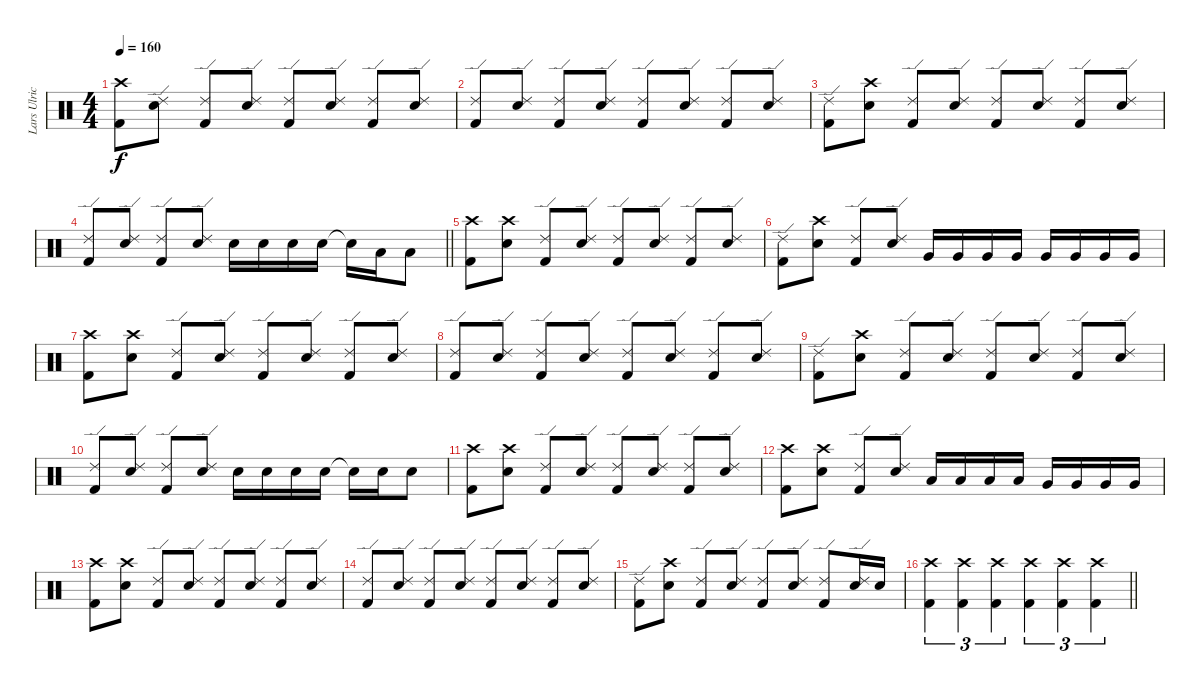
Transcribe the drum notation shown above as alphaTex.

\track ("Lars Ulrich" "Lars Ulric") {instrument percussion}
\staff {score}
\articulation defaults
\ts (4 4)
\tempo 160
\clef neutral
\ks c
("Crash high (hit)" "Kick (hit) 2").8{dy f balance 8} ("Ride (edge) 2" "Electric Snare (hit)").8 ("Ride (edge) 2" "Kick (hit) 2").8 ("Ride (edge) 2" "Electric Snare (hit)").8 ("Ride (edge) 2" "Kick (hit) 2").8 ("Ride (edge) 2" "Electric Snare (hit)").8 ("Ride (edge) 2" "Kick (hit) 2").8 ("Ride (edge) 2" "Electric Snare (hit)").8 |
("Ride (edge) 2" "Kick (hit) 2").8 ("Ride (edge) 2" "Electric Snare (hit)").8 ("Ride (edge) 2" "Kick (hit) 2").8 ("Ride (edge) 2" "Electric Snare (hit)").8 ("Ride (edge) 2" "Kick (hit) 2").8 ("Ride (edge) 2" "Electric Snare (hit)").8 ("Ride (edge) 2" "Kick (hit) 2").8 ("Ride (edge) 2" "Electric Snare (hit)").8 |
("Ride (edge) 2" "Kick (hit) 2").8 ("Crash high (hit)" "Electric Snare (hit)").8 ("Ride (edge) 2" "Kick (hit) 2").8 ("Ride (edge) 2" "Electric Snare (hit)").8 ("Ride (edge) 2" "Kick (hit) 2").8 ("Ride (edge) 2" "Electric Snare (hit)").8 ("Ride (edge) 2" "Kick (hit) 2").8 ("Ride (edge) 2" "Electric Snare (hit)").8 |
\barLineRight lightlight
("Ride (edge) 2" "Kick (hit) 2").8 ("Ride (edge) 2" "Electric Snare (hit)").8 ("Ride (edge) 2" "Kick (hit) 2").8 ("Ride (edge) 2" "Electric Snare (hit)").8 "Electric Snare (hit)".16 "Electric Snare (hit)".16 "Electric Snare (hit)".16 "Electric Snare (hit)".16 "Snare (hit)"{t}.16 "Low Tom (hit)".16 "Low Tom (hit)".8 |
("Crash high (hit)" "Kick (hit) 2").8 ("Crash high (hit)" "Electric Snare (hit)").8 ("Ride (edge) 2" "Kick (hit) 2").8 ("Ride (edge) 2" "Electric Snare (hit)").8 ("Ride (edge) 2" "Kick (hit) 2").8 ("Ride (edge) 2" "Electric Snare (hit)").8 ("Ride (edge) 2" "Kick (hit) 2").8 ("Ride (edge) 2" "Electric Snare (hit)").8 |
("Ride (edge) 2" "Kick (hit) 2").8 ("Crash high (hit)" "Electric Snare (hit)").8 ("Ride (edge) 2" "Kick (hit) 2").8 ("Ride (edge) 2" "Electric Snare (hit)").8 "Very Low Tom (hit)".16 "Very Low Tom (hit)".16 "Very Low Tom (hit)".16 "Very Low Tom (hit)".16 "Very Low Tom (hit)".16 "Very Low Tom (hit)".16 "Very Low Tom (hit)".16 "Very Low Tom (hit)".16 |
("Crash high (hit)" "Kick (hit) 2").8 ("Crash high (hit)" "Electric Snare (hit)").8 ("Ride (edge) 2" "Kick (hit) 2").8 ("Ride (edge) 2" "Electric Snare (hit)").8 ("Ride (edge) 2" "Kick (hit) 2").8 ("Ride (edge) 2" "Electric Snare (hit)").8 ("Ride (edge) 2" "Kick (hit) 2").8 ("Ride (edge) 2" "Electric Snare (hit)").8 |
("Ride (edge) 2" "Kick (hit) 2").8 ("Ride (edge) 2" "Electric Snare (hit)").8 ("Ride (edge) 2" "Kick (hit) 2").8 ("Ride (edge) 2" "Electric Snare (hit)").8 ("Ride (edge) 2" "Kick (hit) 2").8 ("Ride (edge) 2" "Electric Snare (hit)").8 ("Ride (edge) 2" "Kick (hit) 2").8 ("Ride (edge) 2" "Electric Snare (hit)").8 |
("Ride (edge) 2" "Kick (hit) 2").8 ("Crash high (hit)" "Electric Snare (hit)").8 ("Ride (edge) 2" "Kick (hit) 2").8 ("Ride (edge) 2" "Electric Snare (hit)").8 ("Ride (edge) 2" "Kick (hit) 2").8 ("Ride (edge) 2" "Electric Snare (hit)").8 ("Ride (edge) 2" "Kick (hit) 2").8 ("Ride (edge) 2" "Electric Snare (hit)").8 |
("Ride (edge) 2" "Kick (hit) 2").8 ("Ride (edge) 2" "Electric Snare (hit)").8 ("Ride (edge) 2" "Kick (hit) 2").8 ("Ride (edge) 2" "Electric Snare (hit)").8 "Electric Snare (hit)".16 "Electric Snare (hit)".16 "Electric Snare (hit)".16 "Electric Snare (hit)".16 "Snare (hit)"{t}.16 "Electric Snare (hit)".16 "Electric Snare (hit)".8 |
("Crash high (hit)" "Kick (hit) 2").8 ("Crash high (hit)" "Electric Snare (hit)").8 ("Ride (edge) 2" "Kick (hit) 2").8 ("Ride (edge) 2" "Electric Snare (hit)").8 ("Ride (edge) 2" "Kick (hit) 2").8 ("Ride (edge) 2" "Electric Snare (hit)").8 ("Ride (edge) 2" "Kick (hit) 2").8 ("Ride (edge) 2" "Electric Snare (hit)").8 |
("Crash high (hit)" "Kick (hit) 2").8 ("Crash high (hit)" "Electric Snare (hit)").8 ("Ride (edge) 2" "Kick (hit) 2").8 ("Ride (edge) 2" "Electric Snare (hit)").8 "Low Tom (hit)".16 "Low Tom (hit)".16 "Low Tom (hit)".16 "Low Tom (hit)".16 "Very Low Tom (hit)".16 "Very Low Tom (hit)".16 "Very Low Tom (hit)".16 "Very Low Tom (hit)".16 |
("Crash high (hit)" "Kick (hit) 2").8 ("Crash high (hit)" "Electric Snare (hit)").8 ("Ride (edge) 2" "Kick (hit) 2").8 ("Ride (edge) 2" "Electric Snare (hit)").8 ("Ride (edge) 2" "Kick (hit) 2").8 ("Ride (edge) 2" "Electric Snare (hit)").8 ("Ride (edge) 2" "Kick (hit) 2").8 ("Ride (edge) 2" "Electric Snare (hit)").8 |
("Ride (edge) 2" "Kick (hit) 2").8 ("Ride (edge) 2" "Electric Snare (hit)").8 ("Ride (edge) 2" "Kick (hit) 2").8 ("Ride (edge) 2" "Electric Snare (hit)").8 ("Ride (edge) 2" "Kick (hit) 2").8 ("Ride (edge) 2" "Electric Snare (hit)").8 ("Ride (edge) 2" "Kick (hit) 2").8 ("Ride (edge) 2" "Electric Snare (hit)").8 |
("Ride (edge) 2" "Kick (hit) 2").8 ("Crash high (hit)" "Electric Snare (hit)").8 ("Ride (edge) 2" "Kick (hit) 2").8 ("Ride (edge) 2" "Electric Snare (hit)").8 ("Ride (edge) 2" "Kick (hit) 2").8 ("Ride (edge) 2" "Electric Snare (hit)").8 ("Ride (edge) 2" "Kick (hit) 2").8 ("Ride (edge) 2" "Electric Snare (hit)").16 "Electric Snare (hit)".16 |
\barLineRight lightlight
("Crash high (hit)" "Kick (hit) 2").4{tu (3 2)} ("Crash high (hit)" "Kick (hit) 2").4{tu (3 2)} ("Crash high (hit)" "Kick (hit) 2").4{tu (3 2)} ("Crash high (hit)" "Kick (hit) 2").4{tu (3 2)} ("Crash high (hit)" "Kick (hit) 2").4{tu (3 2)} ("Crash high (hit)" "Kick (hit) 2").4{tu (3 2)}
